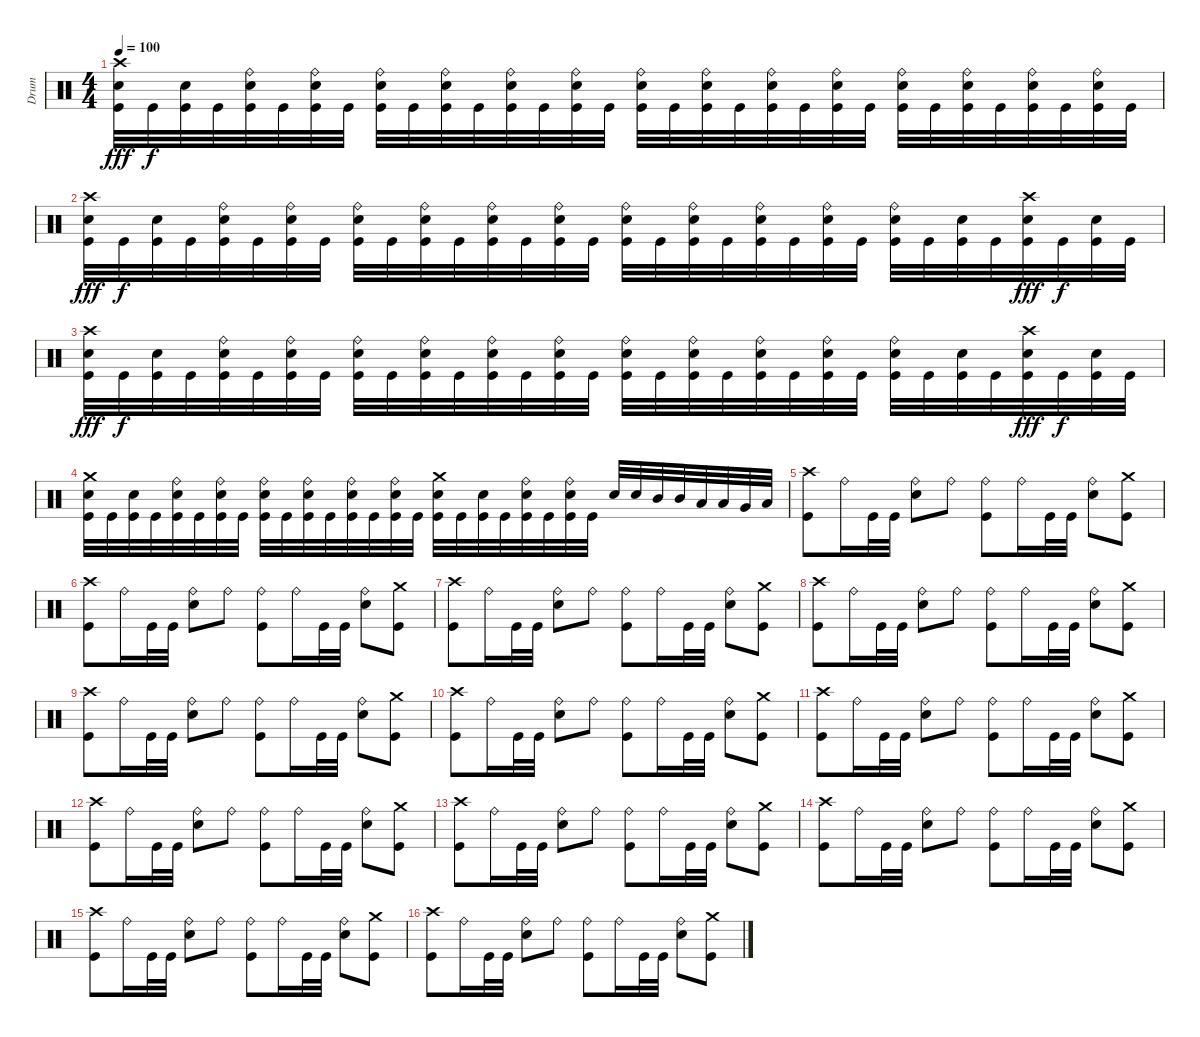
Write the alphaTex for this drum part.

\track ("Drum" "Drum") {instrument percussion}
\staff {score}
\articulation defaults
\ts (4 4)
\tempo 100
\clef neutral
\ks c
("Crash high (hit)" "Electric Snare (hit)" "Kick (hit)").32{dy fff} "Kick (hit)".32{dy f} ("Electric Snare (hit)" "Kick (hit)").32 "Kick (hit)".32 ("Ride (bell)" "Electric Snare (hit)" "Kick (hit)").32 "Kick (hit)".32 ("Ride (bell)" "Electric Snare (hit)" "Kick (hit)").32 "Kick (hit)".32 ("Ride (bell)" "Electric Snare (hit)" "Kick (hit)").32 "Kick (hit)".32 ("Ride (bell)" "Electric Snare (hit)" "Kick (hit)").32 "Kick (hit)".32 ("Ride (bell)" "Electric Snare (hit)" "Kick (hit)").32 "Kick (hit)".32 ("Ride (bell)" "Electric Snare (hit)" "Kick (hit)").32 "Kick (hit)".32 ("Ride (bell)" "Electric Snare (hit)" "Kick (hit)").32 "Kick (hit)".32 ("Ride (bell)" "Electric Snare (hit)" "Kick (hit)").32 "Kick (hit)".32 ("Ride (bell)" "Electric Snare (hit)" "Kick (hit)").32 "Kick (hit)".32 ("Ride (bell)" "Electric Snare (hit)" "Kick (hit)").32 "Kick (hit)".32 ("Ride (bell)" "Electric Snare (hit)" "Kick (hit)").32 "Kick (hit)".32 ("Ride (bell)" "Electric Snare (hit)" "Kick (hit)").32 "Kick (hit)".32 ("Ride (bell)" "Electric Snare (hit)" "Kick (hit)").32 "Kick (hit)".32 ("Ride (bell)" "Electric Snare (hit)" "Kick (hit)").32 "Kick (hit)".32 |
("Crash high (hit)" "Electric Snare (hit)" "Kick (hit)").32{dy fff} "Kick (hit)".32{dy f} ("Electric Snare (hit)" "Kick (hit)").32 "Kick (hit)".32 ("Ride (bell)" "Electric Snare (hit)" "Kick (hit)").32 "Kick (hit)".32 ("Ride (bell)" "Electric Snare (hit)" "Kick (hit)").32 "Kick (hit)".32 ("Ride (bell)" "Electric Snare (hit)" "Kick (hit)").32 "Kick (hit)".32 ("Ride (bell)" "Electric Snare (hit)" "Kick (hit)").32 "Kick (hit)".32 ("Ride (bell)" "Electric Snare (hit)" "Kick (hit)").32 "Kick (hit)".32 ("Ride (bell)" "Electric Snare (hit)" "Kick (hit)").32 "Kick (hit)".32 ("Ride (bell)" "Electric Snare (hit)" "Kick (hit)").32 "Kick (hit)".32 ("Ride (bell)" "Electric Snare (hit)" "Kick (hit)").32 "Kick (hit)".32 ("Ride (bell)" "Electric Snare (hit)" "Kick (hit)").32 "Kick (hit)".32 ("Ride (bell)" "Electric Snare (hit)" "Kick (hit)").32 "Kick (hit)".32 ("Ride (bell)" "Electric Snare (hit)" "Kick (hit)").32 "Kick (hit)".32 ("Electric Snare (hit)" "Kick (hit)").32 "Kick (hit)".32 ("Crash high (hit)" "Electric Snare (hit)" "Kick (hit)").32{dy fff} "Kick (hit)".32{dy f} ("Electric Snare (hit)" "Kick (hit)").32 "Kick (hit)".32 |
("Crash high (hit)" "Electric Snare (hit)" "Kick (hit)").32{dy fff} "Kick (hit)".32{dy f} ("Electric Snare (hit)" "Kick (hit)").32 "Kick (hit)".32 ("Ride (bell)" "Electric Snare (hit)" "Kick (hit)").32 "Kick (hit)".32 ("Ride (bell)" "Electric Snare (hit)" "Kick (hit)").32 "Kick (hit)".32 ("Ride (bell)" "Electric Snare (hit)" "Kick (hit)").32 "Kick (hit)".32 ("Ride (bell)" "Electric Snare (hit)" "Kick (hit)").32 "Kick (hit)".32 ("Ride (bell)" "Electric Snare (hit)" "Kick (hit)").32 "Kick (hit)".32 ("Ride (bell)" "Electric Snare (hit)" "Kick (hit)").32 "Kick (hit)".32 ("Ride (bell)" "Electric Snare (hit)" "Kick (hit)").32 "Kick (hit)".32 ("Ride (bell)" "Electric Snare (hit)" "Kick (hit)").32 "Kick (hit)".32 ("Ride (bell)" "Electric Snare (hit)" "Kick (hit)").32 "Kick (hit)".32 ("Ride (bell)" "Electric Snare (hit)" "Kick (hit)").32 "Kick (hit)".32 ("Ride (bell)" "Electric Snare (hit)" "Kick (hit)").32 "Kick (hit)".32 ("Electric Snare (hit)" "Kick (hit)").32 "Kick (hit)".32 ("Crash high (hit)" "Electric Snare (hit)" "Kick (hit)").32{dy fff} "Kick (hit)".32{dy f} ("Electric Snare (hit)" "Kick (hit)").32 "Kick (hit)".32 |
("Crash medium (hit)" "Electric Snare (hit)" "Kick (hit)").32 "Kick (hit)".32 ("Electric Snare (hit)" "Kick (hit)").32 "Kick (hit)".32 ("Ride (bell)" "Electric Snare (hit)" "Kick (hit)").32 "Kick (hit)".32 ("Ride (bell)" "Electric Snare (hit)" "Kick (hit)").32 "Kick (hit)".32 ("Ride (bell)" "Electric Snare (hit)" "Kick (hit)").32 "Kick (hit)".32 ("Ride (bell)" "Electric Snare (hit)" "Kick (hit)").32 "Kick (hit)".32 ("Ride (bell)" "Electric Snare (hit)" "Kick (hit)").32 "Kick (hit)".32 ("Ride (bell)" "Electric Snare (hit)" "Kick (hit)").32 "Kick (hit)".32 ("Crash medium (hit)" "Electric Snare (hit)" "Kick (hit)").32 "Kick (hit)".32 ("Electric Snare (hit)" "Kick (hit)").32 "Kick (hit)".32 ("Ride (bell)" "Electric Snare (hit)" "Kick (hit)").32 "Kick (hit)".32 ("Ride (bell)" "Electric Snare (hit)" "Kick (hit)").32 "Kick (hit)".32 "Electric Snare (hit)".32 "Electric Snare (hit)".32 "Mid Tom (hit)".32 "Mid Tom (hit)".32 "Low Tom (hit)".32 "Low Tom (hit)".32 "Very Low Tom (hit)".32 "Low Floor Tom (hit)".32 |
("Crash high (hit)" "Kick (hit)").8 "Ride (bell)".16 "Kick (hit)".32 "Kick (hit)".32 ("Ride (bell)" "Electric Snare (hit)").8 "Ride (bell)".8 ("Ride (bell)" "Kick (hit)").8 "Ride (bell)".16 "Kick (hit)".32 "Kick (hit)".32 ("Ride (bell)" "Electric Snare (hit)").8 ("Crash medium (hit)" "Kick (hit)").8 |
("Crash high (hit)" "Kick (hit)").8 "Ride (bell)".16 "Kick (hit)".32 "Kick (hit)".32 ("Ride (bell)" "Electric Snare (hit)").8 "Ride (bell)".8 ("Ride (bell)" "Kick (hit)").8 "Ride (bell)".16 "Kick (hit)".32 "Kick (hit)".32 ("Ride (bell)" "Electric Snare (hit)").8 ("Crash medium (hit)" "Kick (hit)").8 |
("Crash high (hit)" "Kick (hit)").8 "Ride (bell)".16 "Kick (hit)".32 "Kick (hit)".32 ("Ride (bell)" "Electric Snare (hit)").8 "Ride (bell)".8 ("Ride (bell)" "Kick (hit)").8 "Ride (bell)".16 "Kick (hit)".32 "Kick (hit)".32 ("Ride (bell)" "Electric Snare (hit)").8 ("Crash medium (hit)" "Kick (hit)").8 |
("Crash high (hit)" "Kick (hit)").8 "Ride (bell)".16 "Kick (hit)".32 "Kick (hit)".32 ("Ride (bell)" "Electric Snare (hit)").8 "Ride (bell)".8 ("Ride (bell)" "Kick (hit)").8 "Ride (bell)".16 "Kick (hit)".32 "Kick (hit)".32 ("Ride (bell)" "Electric Snare (hit)").8 ("Crash medium (hit)" "Kick (hit)").8 |
("Crash high (hit)" "Kick (hit)").8 "Ride (bell)".16 "Kick (hit)".32 "Kick (hit)".32 ("Ride (bell)" "Electric Snare (hit)").8 "Ride (bell)".8 ("Ride (bell)" "Kick (hit)").8 "Ride (bell)".16 "Kick (hit)".32 "Kick (hit)".32 ("Ride (bell)" "Electric Snare (hit)").8 ("Crash medium (hit)" "Kick (hit)").8 |
("Crash high (hit)" "Kick (hit)").8 "Ride (bell)".16 "Kick (hit)".32 "Kick (hit)".32 ("Ride (bell)" "Electric Snare (hit)").8 "Ride (bell)".8 ("Ride (bell)" "Kick (hit)").8 "Ride (bell)".16 "Kick (hit)".32 "Kick (hit)".32 ("Ride (bell)" "Electric Snare (hit)").8 ("Crash medium (hit)" "Kick (hit)").8 |
("Crash high (hit)" "Kick (hit)").8 "Ride (bell)".16 "Kick (hit)".32 "Kick (hit)".32 ("Ride (bell)" "Electric Snare (hit)").8 "Ride (bell)".8 ("Ride (bell)" "Kick (hit)").8 "Ride (bell)".16 "Kick (hit)".32 "Kick (hit)".32 ("Ride (bell)" "Electric Snare (hit)").8 ("Crash medium (hit)" "Kick (hit)").8 |
("Crash high (hit)" "Kick (hit)").8 "Ride (bell)".16 "Kick (hit)".32 "Kick (hit)".32 ("Ride (bell)" "Electric Snare (hit)").8 "Ride (bell)".8 ("Ride (bell)" "Kick (hit)").8 "Ride (bell)".16 "Kick (hit)".32 "Kick (hit)".32 ("Ride (bell)" "Electric Snare (hit)").8 ("Crash medium (hit)" "Kick (hit)").8 |
("Crash high (hit)" "Kick (hit)").8 "Ride (bell)".16 "Kick (hit)".32 "Kick (hit)".32 ("Ride (bell)" "Electric Snare (hit)").8 "Ride (bell)".8 ("Ride (bell)" "Kick (hit)").8 "Ride (bell)".16 "Kick (hit)".32 "Kick (hit)".32 ("Ride (bell)" "Electric Snare (hit)").8 ("Crash medium (hit)" "Kick (hit)").8 |
("Crash high (hit)" "Kick (hit)").8 "Ride (bell)".16 "Kick (hit)".32 "Kick (hit)".32 ("Ride (bell)" "Electric Snare (hit)").8 "Ride (bell)".8 ("Ride (bell)" "Kick (hit)").8 "Ride (bell)".16 "Kick (hit)".32 "Kick (hit)".32 ("Ride (bell)" "Electric Snare (hit)").8 ("Crash medium (hit)" "Kick (hit)").8 |
("Crash high (hit)" "Kick (hit)").8 "Ride (bell)".16 "Kick (hit)".32 "Kick (hit)".32 ("Ride (bell)" "Electric Snare (hit)").8 "Ride (bell)".8 ("Ride (bell)" "Kick (hit)").8 "Ride (bell)".16 "Kick (hit)".32 "Kick (hit)".32 ("Ride (bell)" "Electric Snare (hit)").8 ("Crash medium (hit)" "Kick (hit)").8 |
("Crash high (hit)" "Kick (hit)").8 "Ride (bell)".16 "Kick (hit)".32 "Kick (hit)".32 ("Ride (bell)" "Electric Snare (hit)").8 "Ride (bell)".8 ("Ride (bell)" "Kick (hit)").8 "Ride (bell)".16 "Kick (hit)".32 "Kick (hit)".32 ("Ride (bell)" "Electric Snare (hit)").8 ("Crash medium (hit)" "Kick (hit)").8
